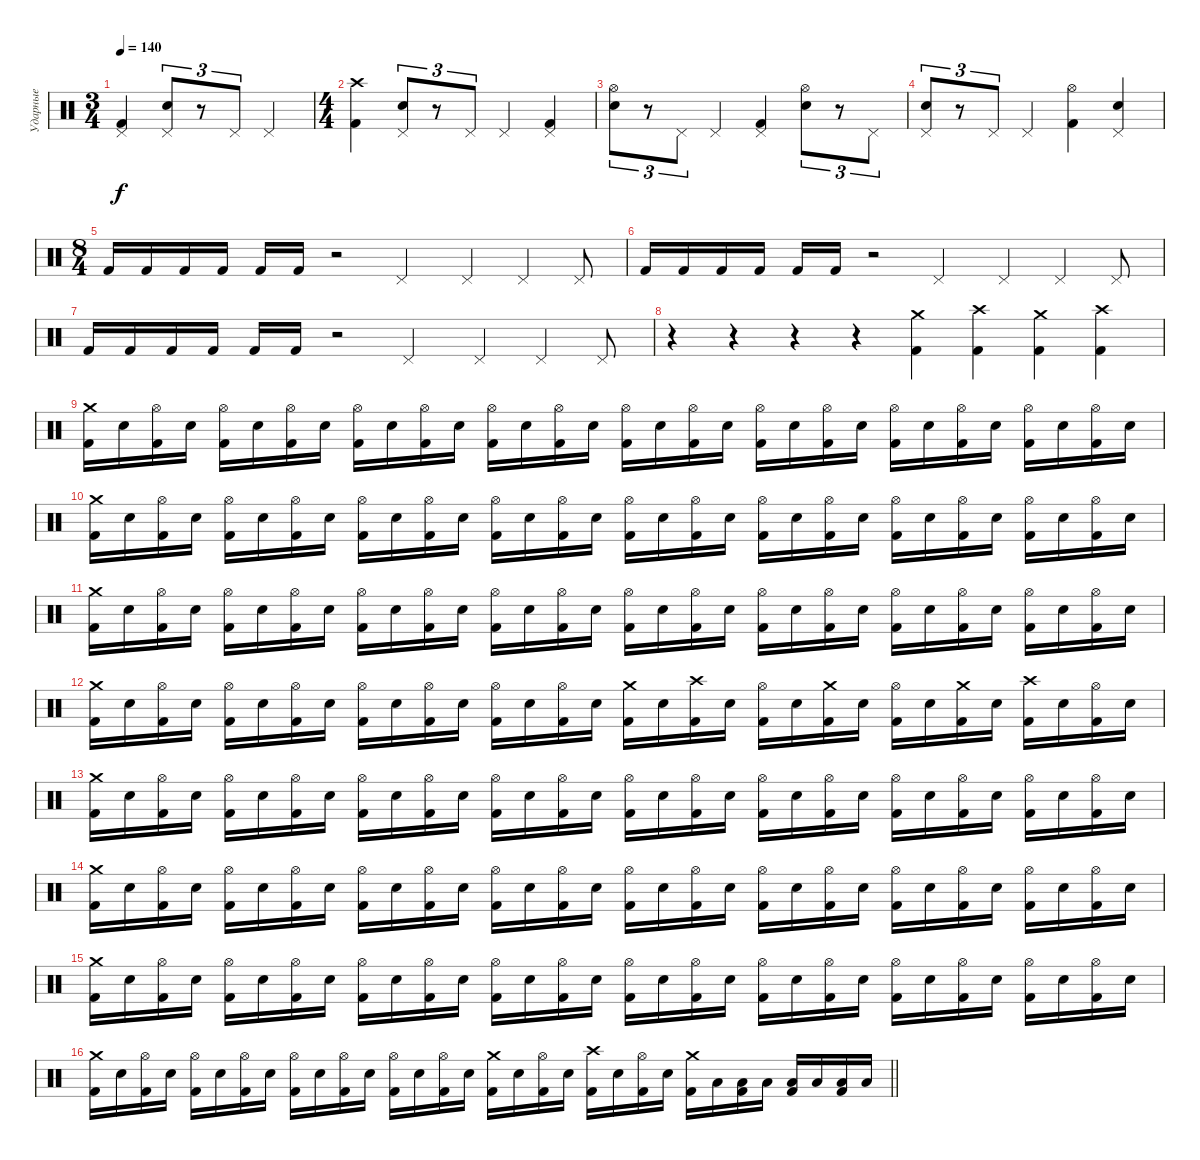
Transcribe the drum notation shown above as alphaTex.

\track ("Ударные" "Ударные") {instrument percussion}
\staff {score}
\articulation defaults
\ts (3 4)
\tempo 140
\clef neutral
\ks c
("Pedal Hi-Hat (hit)" "Kick (hit) 2").4{dy f} ("Pedal Hi-Hat (hit)" "Electric Snare (hit)").8{tu (3 2)} r.8{tu (3 2)} "Pedal Hi-Hat (hit)".8{tu (3 2)} "Pedal Hi-Hat (hit)".4 |
\ts (4 4)
("Crash high (hit)" "Kick (hit) 2").4 ("Pedal Hi-Hat (hit)" "Electric Snare (hit)").8{tu (3 2)} r.8{tu (3 2)} "Pedal Hi-Hat (hit)".8{tu (3 2)} "Pedal Hi-Hat (hit)".4 ("Pedal Hi-Hat (hit)" "Kick (hit) 2").4 |
("Hi-Hat (open)" "Electric Snare (hit)").8{tu (3 2)} r.8{tu (3 2)} "Pedal Hi-Hat (hit)".8{tu (3 2)} "Pedal Hi-Hat (hit)".4 ("Pedal Hi-Hat (hit)" "Kick (hit) 2").4 ("Hi-Hat (open)" "Electric Snare (hit)").8{tu (3 2)} r.8{tu (3 2)} "Pedal Hi-Hat (hit)".8{tu (3 2)} |
("Pedal Hi-Hat (hit)" "Electric Snare (hit)").8{tu (3 2)} r.8{tu (3 2)} "Pedal Hi-Hat (hit)".8{tu (3 2)} "Pedal Hi-Hat (hit)".4 ("Hi-Hat (open)" "Kick (hit) 2").4 ("Pedal Hi-Hat (hit)" "Electric Snare (hit)").4 |
\ts (8 4)
"Kick (hit) 2".16 "Kick (hit) 2".16 "Kick (hit) 2".16 "Kick (hit) 2".16 "Kick (hit) 2".16 "Kick (hit) 2".16 r.2 "Pedal Hi-Hat (hit)".2 "Pedal Hi-Hat (hit)".4 "Pedal Hi-Hat (hit)".4 "Pedal Hi-Hat (hit)".8 |
"Kick (hit) 2".16 "Kick (hit) 2".16 "Kick (hit) 2".16 "Kick (hit) 2".16 "Kick (hit) 2".16 "Kick (hit) 2".16 r.2 "Pedal Hi-Hat (hit)".2 "Pedal Hi-Hat (hit)".4 "Pedal Hi-Hat (hit)".4 "Pedal Hi-Hat (hit)".8 |
"Kick (hit) 2".16 "Kick (hit) 2".16 "Kick (hit) 2".16 "Kick (hit) 2".16 "Kick (hit) 2".16 "Kick (hit) 2".16 r.2 "Pedal Hi-Hat (hit)".2 "Pedal Hi-Hat (hit)".4 "Pedal Hi-Hat (hit)".4 "Pedal Hi-Hat (hit)".8 |
r.4 r.4 r.4 r.4 ("Crash medium (hit)" "Kick (hit) 2").4 ("Crash high (hit)" "Kick (hit) 2").4 ("Crash medium (hit)" "Kick (hit) 2").4 ("Crash high (hit)" "Kick (hit) 2").4 |
("Crash medium (hit)" "Kick (hit) 2").16 "Electric Snare (hit)".16 ("Hi-Hat (open)" "Kick (hit) 2").16 "Electric Snare (hit)".16 ("Hi-Hat (open)" "Kick (hit) 2").16 "Electric Snare (hit)".16 ("Hi-Hat (open)" "Kick (hit) 2").16 "Electric Snare (hit)".16 ("Hi-Hat (open)" "Kick (hit) 2").16 "Electric Snare (hit)".16 ("Hi-Hat (open)" "Kick (hit) 2").16 "Electric Snare (hit)".16 ("Hi-Hat (open)" "Kick (hit) 2").16 "Electric Snare (hit)".16 ("Hi-Hat (open)" "Kick (hit) 2").16 "Electric Snare (hit)".16 ("Hi-Hat (open)" "Kick (hit) 2").16 "Electric Snare (hit)".16 ("Hi-Hat (open)" "Kick (hit) 2").16 "Electric Snare (hit)".16 ("Hi-Hat (open)" "Kick (hit) 2").16 "Electric Snare (hit)".16 ("Hi-Hat (open)" "Kick (hit) 2").16 "Electric Snare (hit)".16 ("Hi-Hat (open)" "Kick (hit) 2").16 "Electric Snare (hit)".16 ("Hi-Hat (open)" "Kick (hit) 2").16 "Electric Snare (hit)".16 ("Hi-Hat (open)" "Kick (hit) 2").16 "Electric Snare (hit)".16 ("Hi-Hat (open)" "Kick (hit) 2").16 "Electric Snare (hit)".16 |
("Crash medium (hit)" "Kick (hit) 2").16 "Electric Snare (hit)".16 ("Hi-Hat (open)" "Kick (hit) 2").16 "Electric Snare (hit)".16 ("Hi-Hat (open)" "Kick (hit) 2").16 "Electric Snare (hit)".16 ("Hi-Hat (open)" "Kick (hit) 2").16 "Electric Snare (hit)".16 ("Hi-Hat (open)" "Kick (hit) 2").16 "Electric Snare (hit)".16 ("Hi-Hat (open)" "Kick (hit) 2").16 "Electric Snare (hit)".16 ("Hi-Hat (open)" "Kick (hit) 2").16 "Electric Snare (hit)".16 ("Hi-Hat (open)" "Kick (hit) 2").16 "Electric Snare (hit)".16 ("Hi-Hat (open)" "Kick (hit) 2").16 "Electric Snare (hit)".16 ("Hi-Hat (open)" "Kick (hit) 2").16 "Electric Snare (hit)".16 ("Hi-Hat (open)" "Kick (hit) 2").16 "Electric Snare (hit)".16 ("Hi-Hat (open)" "Kick (hit) 2").16 "Electric Snare (hit)".16 ("Hi-Hat (open)" "Kick (hit) 2").16 "Electric Snare (hit)".16 ("Hi-Hat (open)" "Kick (hit) 2").16 "Electric Snare (hit)".16 ("Hi-Hat (open)" "Kick (hit) 2").16 "Electric Snare (hit)".16 ("Hi-Hat (open)" "Kick (hit) 2").16 "Electric Snare (hit)".16 |
("Crash medium (hit)" "Kick (hit) 2").16 "Electric Snare (hit)".16 ("Hi-Hat (open)" "Kick (hit) 2").16 "Electric Snare (hit)".16 ("Hi-Hat (open)" "Kick (hit) 2").16 "Electric Snare (hit)".16 ("Hi-Hat (open)" "Kick (hit) 2").16 "Electric Snare (hit)".16 ("Hi-Hat (open)" "Kick (hit) 2").16 "Electric Snare (hit)".16 ("Hi-Hat (open)" "Kick (hit) 2").16 "Electric Snare (hit)".16 ("Hi-Hat (open)" "Kick (hit) 2").16 "Electric Snare (hit)".16 ("Hi-Hat (open)" "Kick (hit) 2").16 "Electric Snare (hit)".16 ("Hi-Hat (open)" "Kick (hit) 2").16 "Electric Snare (hit)".16 ("Hi-Hat (open)" "Kick (hit) 2").16 "Electric Snare (hit)".16 ("Hi-Hat (open)" "Kick (hit) 2").16 "Electric Snare (hit)".16 ("Hi-Hat (open)" "Kick (hit) 2").16 "Electric Snare (hit)".16 ("Hi-Hat (open)" "Kick (hit) 2").16 "Electric Snare (hit)".16 ("Hi-Hat (open)" "Kick (hit) 2").16 "Electric Snare (hit)".16 ("Hi-Hat (open)" "Kick (hit) 2").16 "Electric Snare (hit)".16 ("Hi-Hat (open)" "Kick (hit) 2").16 "Electric Snare (hit)".16 |
("Crash medium (hit)" "Kick (hit) 2").16 "Electric Snare (hit)".16 ("Hi-Hat (open)" "Kick (hit) 2").16 "Electric Snare (hit)".16 ("Hi-Hat (open)" "Kick (hit) 2").16 "Electric Snare (hit)".16 ("Hi-Hat (open)" "Kick (hit) 2").16 "Electric Snare (hit)".16 ("Hi-Hat (open)" "Kick (hit) 2").16 "Electric Snare (hit)".16 ("Hi-Hat (open)" "Kick (hit) 2").16 "Electric Snare (hit)".16 ("Hi-Hat (open)" "Kick (hit) 2").16 "Electric Snare (hit)".16 ("Hi-Hat (open)" "Kick (hit) 2").16 "Electric Snare (hit)".16 ("Crash medium (hit)" "Kick (hit) 2").16 "Electric Snare (hit)".16 ("Crash high (hit)" "Kick (hit) 2").16 "Electric Snare (hit)".16 ("Hi-Hat (open)" "Kick (hit) 2").16 "Electric Snare (hit)".16 ("Crash medium (hit)" "Kick (hit) 2").16 "Electric Snare (hit)".16 ("Hi-Hat (open)" "Kick (hit) 2").16 "Electric Snare (hit)".16 ("Crash medium (hit)" "Kick (hit) 2").16 "Electric Snare (hit)".16 ("Crash high (hit)" "Kick (hit) 2").16 "Electric Snare (hit)".16 ("Hi-Hat (open)" "Kick (hit) 2").16 "Electric Snare (hit)".16 |
("Crash medium (hit)" "Kick (hit) 2").16 "Electric Snare (hit)".16 ("Hi-Hat (open)" "Kick (hit) 2").16 "Electric Snare (hit)".16 ("Hi-Hat (open)" "Kick (hit) 2").16 "Electric Snare (hit)".16 ("Hi-Hat (open)" "Kick (hit) 2").16 "Electric Snare (hit)".16 ("Hi-Hat (open)" "Kick (hit) 2").16 "Electric Snare (hit)".16 ("Hi-Hat (open)" "Kick (hit) 2").16 "Electric Snare (hit)".16 ("Hi-Hat (open)" "Kick (hit) 2").16 "Electric Snare (hit)".16 ("Hi-Hat (open)" "Kick (hit) 2").16 "Electric Snare (hit)".16 ("Hi-Hat (open)" "Kick (hit) 2").16 "Electric Snare (hit)".16 ("Hi-Hat (open)" "Kick (hit) 2").16 "Electric Snare (hit)".16 ("Hi-Hat (open)" "Kick (hit) 2").16 "Electric Snare (hit)".16 ("Hi-Hat (open)" "Kick (hit) 2").16 "Electric Snare (hit)".16 ("Hi-Hat (open)" "Kick (hit) 2").16 "Electric Snare (hit)".16 ("Hi-Hat (open)" "Kick (hit) 2").16 "Electric Snare (hit)".16 ("Hi-Hat (open)" "Kick (hit) 2").16 "Electric Snare (hit)".16 ("Hi-Hat (open)" "Kick (hit) 2").16 "Electric Snare (hit)".16 |
("Crash medium (hit)" "Kick (hit) 2").16 "Electric Snare (hit)".16 ("Hi-Hat (open)" "Kick (hit) 2").16 "Electric Snare (hit)".16 ("Hi-Hat (open)" "Kick (hit) 2").16 "Electric Snare (hit)".16 ("Hi-Hat (open)" "Kick (hit) 2").16 "Electric Snare (hit)".16 ("Hi-Hat (open)" "Kick (hit) 2").16 "Electric Snare (hit)".16 ("Hi-Hat (open)" "Kick (hit) 2").16 "Electric Snare (hit)".16 ("Hi-Hat (open)" "Kick (hit) 2").16 "Electric Snare (hit)".16 ("Hi-Hat (open)" "Kick (hit) 2").16 "Electric Snare (hit)".16 ("Hi-Hat (open)" "Kick (hit) 2").16 "Electric Snare (hit)".16 ("Hi-Hat (open)" "Kick (hit) 2").16 "Electric Snare (hit)".16 ("Hi-Hat (open)" "Kick (hit) 2").16 "Electric Snare (hit)".16 ("Hi-Hat (open)" "Kick (hit) 2").16 "Electric Snare (hit)".16 ("Hi-Hat (open)" "Kick (hit) 2").16 "Electric Snare (hit)".16 ("Hi-Hat (open)" "Kick (hit) 2").16 "Electric Snare (hit)".16 ("Hi-Hat (open)" "Kick (hit) 2").16 "Electric Snare (hit)".16 ("Hi-Hat (open)" "Kick (hit) 2").16 "Electric Snare (hit)".16 |
("Crash medium (hit)" "Kick (hit) 2").16 "Electric Snare (hit)".16 ("Hi-Hat (open)" "Kick (hit) 2").16 "Electric Snare (hit)".16 ("Hi-Hat (open)" "Kick (hit) 2").16 "Electric Snare (hit)".16 ("Hi-Hat (open)" "Kick (hit) 2").16 "Electric Snare (hit)".16 ("Hi-Hat (open)" "Kick (hit) 2").16 "Electric Snare (hit)".16 ("Hi-Hat (open)" "Kick (hit) 2").16 "Electric Snare (hit)".16 ("Hi-Hat (open)" "Kick (hit) 2").16 "Electric Snare (hit)".16 ("Hi-Hat (open)" "Kick (hit) 2").16 "Electric Snare (hit)".16 ("Hi-Hat (open)" "Kick (hit) 2").16 "Electric Snare (hit)".16 ("Hi-Hat (open)" "Kick (hit) 2").16 "Electric Snare (hit)".16 ("Hi-Hat (open)" "Kick (hit) 2").16 "Electric Snare (hit)".16 ("Hi-Hat (open)" "Kick (hit) 2").16 "Electric Snare (hit)".16 ("Hi-Hat (open)" "Kick (hit) 2").16 "Electric Snare (hit)".16 ("Hi-Hat (open)" "Kick (hit) 2").16 "Electric Snare (hit)".16 ("Hi-Hat (open)" "Kick (hit) 2").16 "Electric Snare (hit)".16 ("Hi-Hat (open)" "Kick (hit) 2").16 "Electric Snare (hit)".16 |
\barLineRight lightlight
("Crash medium (hit)" "Kick (hit) 2").16 "Electric Snare (hit)".16 ("Hi-Hat (open)" "Kick (hit) 2").16 "Electric Snare (hit)".16 ("Hi-Hat (open)" "Kick (hit) 2").16 "Electric Snare (hit)".16 ("Hi-Hat (open)" "Kick (hit) 2").16 "Electric Snare (hit)".16 ("Hi-Hat (open)" "Kick (hit) 2").16 "Electric Snare (hit)".16 ("Hi-Hat (open)" "Kick (hit) 2").16 "Electric Snare (hit)".16 ("Hi-Hat (open)" "Kick (hit) 2").16 "Electric Snare (hit)".16 ("Hi-Hat (open)" "Kick (hit) 2").16 "Electric Snare (hit)".16 ("Crash medium (hit)" "Kick (hit) 2").16 "Electric Snare (hit)".16 ("Hi-Hat (open)" "Kick (hit) 2").16 "Electric Snare (hit)".16 ("Crash high (hit)" "Kick (hit) 2").16 "Electric Snare (hit)".16 ("Hi-Hat (open)" "Kick (hit) 2").16 "Electric Snare (hit)".16 ("Crash medium (hit)" "Kick (hit) 2").16 "Low Tom (hit)".16 ("Low Tom (hit)" "Kick (hit) 2").16 "Low Tom (hit)".16 ("Low Floor Tom (hit)" "Kick (hit) 2").16 "Low Floor Tom (hit)".16 ("Low Floor Tom (hit)" "Kick (hit) 2").16 "Low Floor Tom (hit)".16
